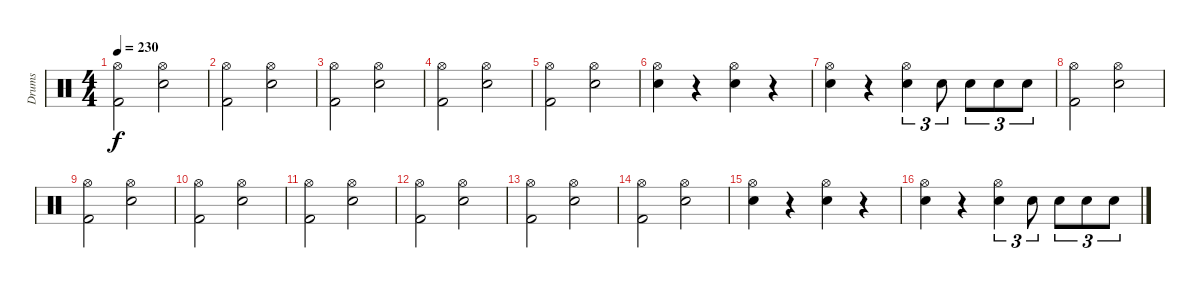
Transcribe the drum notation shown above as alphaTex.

\track ("Drums" "Drums") {instrument percussion}
\staff {score}
\articulation defaults
\ts (4 4)
\tempo 230
\clef neutral
\ks c
("Hi-Hat (open)" "Kick (hit) 2").2{dy f} ("Hi-Hat (open)" "Electric Snare (hit)").2 |
("Hi-Hat (open)" "Kick (hit) 2").2 ("Hi-Hat (open)" "Electric Snare (hit)").2 |
("Hi-Hat (open)" "Kick (hit) 2").2 ("Hi-Hat (open)" "Electric Snare (hit)").2 |
("Hi-Hat (open)" "Kick (hit) 2").2 ("Hi-Hat (open)" "Electric Snare (hit)").2 |
("Hi-Hat (open)" "Kick (hit) 2").2 ("Hi-Hat (open)" "Electric Snare (hit)").2 |
("Hi-Hat (open)" "Electric Snare (hit)").4 r.4 ("Hi-Hat (open)" "Electric Snare (hit)").4 r.4 |
("Hi-Hat (open)" "Electric Snare (hit)").4 r.4 ("Hi-Hat (open)" "Electric Snare (hit)").4{tu (3 2)} "Electric Snare (hit)".8{tu (3 2)} "Electric Snare (hit)".8{tu (3 2)} "Electric Snare (hit)".8{tu (3 2)} "Electric Snare (hit)".8{tu (3 2)} |
("Hi-Hat (open)" "Kick (hit) 2").2 ("Hi-Hat (open)" "Electric Snare (hit)").2 |
("Hi-Hat (open)" "Kick (hit) 2").2 ("Hi-Hat (open)" "Electric Snare (hit)").2 |
("Hi-Hat (open)" "Kick (hit) 2").2 ("Hi-Hat (open)" "Electric Snare (hit)").2 |
("Hi-Hat (open)" "Kick (hit) 2").2 ("Hi-Hat (open)" "Electric Snare (hit)").2 |
("Hi-Hat (open)" "Kick (hit) 2").2 ("Hi-Hat (open)" "Electric Snare (hit)").2 |
("Hi-Hat (open)" "Kick (hit) 2").2 ("Hi-Hat (open)" "Electric Snare (hit)").2 |
("Hi-Hat (open)" "Kick (hit) 2").2 ("Hi-Hat (open)" "Electric Snare (hit)").2 |
("Hi-Hat (open)" "Electric Snare (hit)").4 r.4 ("Hi-Hat (open)" "Electric Snare (hit)").4 r.4 |
("Hi-Hat (open)" "Electric Snare (hit)").4 r.4 ("Hi-Hat (open)" "Electric Snare (hit)").4{tu (3 2)} "Electric Snare (hit)".8{tu (3 2)} "Electric Snare (hit)".8{tu (3 2)} "Electric Snare (hit)".8{tu (3 2)} "Electric Snare (hit)".8{tu (3 2)}
